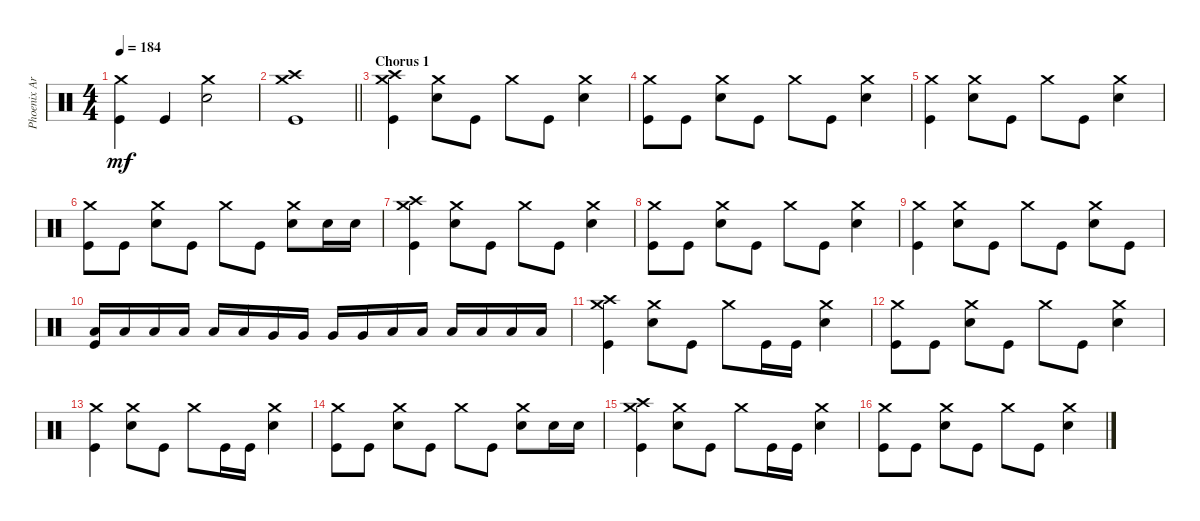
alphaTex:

\track ("Phoenix Arn-Horn (Drums)" "Phoenix Ar") {instrument percussion}
\staff {score}
\articulation defaults
\ts (4 4)
\tempo 184
\clef neutral
\ks c
("Kick (hit)" "Crash medium (hit)").4{dy mf} "Kick (hit)".4 ("Snare (hit) 2" "Crash medium (hit)").2 |
\barLineRight lightlight
("Kick (hit)" "Crash medium (hit)" "Crash high (hit)").1 |
\section ("" "Chorus 1")
("Kick (hit)" "Crash medium (hit)" "Crash high (hit)").4 ("Snare (hit) 2" "Crash medium (hit)").8 "Kick (hit)".8 "Crash medium (hit)".8 "Kick (hit)".8 ("Snare (hit) 2" "Crash medium (hit)").4 |
("Kick (hit)" "Crash medium (hit)").8 "Kick (hit)".8 ("Snare (hit) 2" "Crash medium (hit)").8 "Kick (hit)".8 "Crash medium (hit)".8 "Kick (hit)".8 ("Snare (hit) 2" "Crash medium (hit)").4 |
("Kick (hit)" "Crash medium (hit)").4 ("Snare (hit) 2" "Crash medium (hit)").8 "Kick (hit)".8 "Crash medium (hit)".8 "Kick (hit)".8 ("Snare (hit) 2" "Crash medium (hit)").4 |
("Kick (hit)" "Crash medium (hit)").8 "Kick (hit)".8 ("Snare (hit) 2" "Crash medium (hit)").8 "Kick (hit)".8 "Crash medium (hit)".8 "Kick (hit)".8 ("Snare (hit) 2" "Crash medium (hit)").8 "Snare (hit) 2".16 "Snare (hit) 2".16 |
("Kick (hit)" "Crash medium (hit)" "Crash high (hit)").4 ("Snare (hit) 2" "Crash medium (hit)").8 "Kick (hit)".8 "Crash medium (hit)".8 "Kick (hit)".8 ("Snare (hit) 2" "Crash medium (hit)").4 |
("Kick (hit)" "Crash medium (hit)").8 "Kick (hit)".8 ("Snare (hit) 2" "Crash medium (hit)").8 "Kick (hit)".8 "Crash medium (hit)".8 "Kick (hit)".8 ("Snare (hit) 2" "Crash medium (hit)").4 |
("Kick (hit)" "Crash medium (hit)").4 ("Snare (hit) 2" "Crash medium (hit)").8 "Kick (hit)".8 "Crash medium (hit)".8 "Kick (hit)".8 ("Snare (hit) 2" "Crash medium (hit)").8 "Kick (hit)".8 |
("Low Tom (hit)" "Kick (hit)").16 "Low Tom (hit)".16 "Low Tom (hit)".16 "Low Tom (hit)".16 "Low Tom (hit)".16 "Low Tom (hit)".16 "Very Low Tom (hit)".16 "Very Low Tom (hit)".16 "Very Low Tom (hit)".16 "Very Low Tom (hit)".16 "Low Floor Tom (hit)".16 "Low Floor Tom (hit)".16 "Low Floor Tom (hit)".16 "Low Floor Tom (hit)".16 "Low Floor Tom (hit)".16 "Low Floor Tom (hit)".16 |
("Kick (hit)" "Crash medium (hit)" "Crash high (hit)").4 ("Snare (hit) 2" "Crash medium (hit)").8 "Kick (hit)".8 "Crash medium (hit)".8 "Kick (hit)".16 "Kick (hit)".16 ("Snare (hit) 2" "Crash medium (hit)").4 |
("Kick (hit)" "Crash medium (hit)").8 "Kick (hit)".8 ("Snare (hit) 2" "Crash medium (hit)").8 "Kick (hit)".8 "Crash medium (hit)".8 "Kick (hit)".8 ("Snare (hit) 2" "Crash medium (hit)").4 |
("Kick (hit)" "Crash medium (hit)").4 ("Snare (hit) 2" "Crash medium (hit)").8 "Kick (hit)".8 "Crash medium (hit)".8 "Kick (hit)".16 "Kick (hit)".16 ("Snare (hit) 2" "Crash medium (hit)").4 |
("Kick (hit)" "Crash medium (hit)").8 "Kick (hit)".8 ("Snare (hit) 2" "Crash medium (hit)").8 "Kick (hit)".8 "Crash medium (hit)".8 "Kick (hit)".8 ("Snare (hit) 2" "Crash medium (hit)").8 "Snare (hit) 2".16 "Snare (hit) 2".16 |
("Kick (hit)" "Crash medium (hit)" "Crash high (hit)").4 ("Snare (hit) 2" "Crash medium (hit)").8 "Kick (hit)".8 "Crash medium (hit)".8 "Kick (hit)".16 "Kick (hit)".16 ("Snare (hit) 2" "Crash medium (hit)").4 |
("Kick (hit)" "Crash medium (hit)").8 "Kick (hit)".8 ("Snare (hit) 2" "Crash medium (hit)").8 "Kick (hit)".8 "Crash medium (hit)".8 "Kick (hit)".8 ("Snare (hit) 2" "Crash medium (hit)").4
